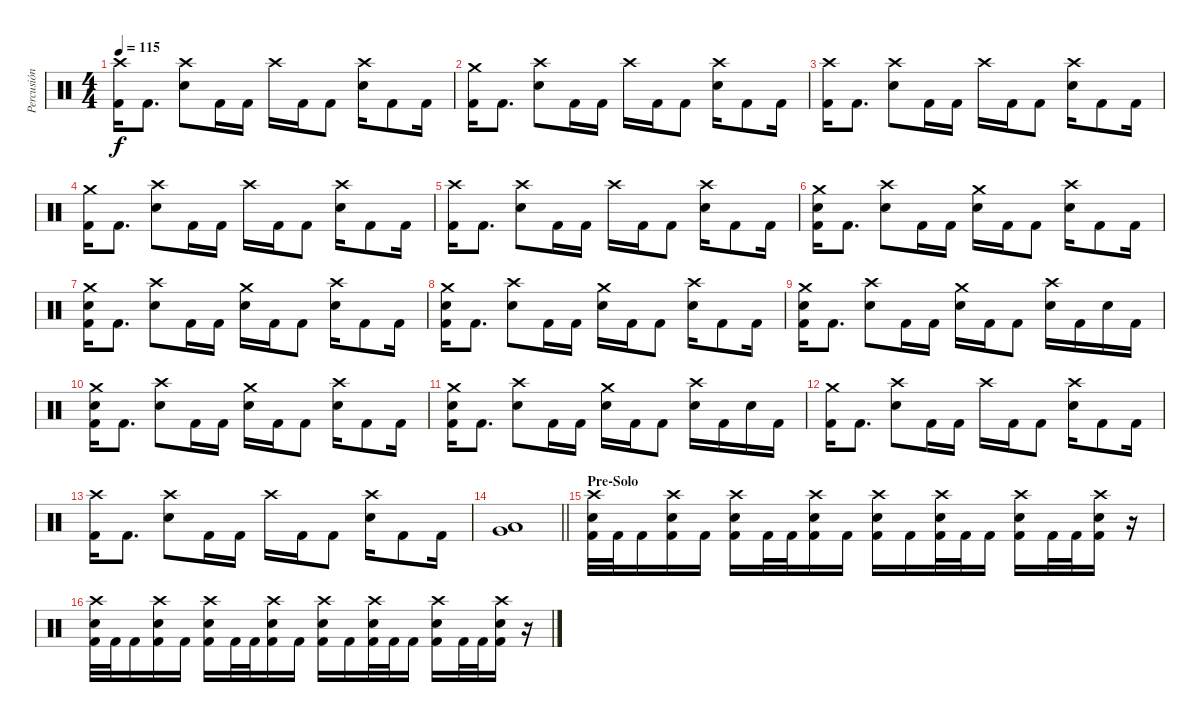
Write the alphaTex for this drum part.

\track ("Percusión" "Percusión") {instrument percussion}
\staff {score}
\articulation defaults
\ts (4 4)
\tempo 115
\clef neutral
\ks c
("Crash high (hit)" "Kick (hit) 2").16{dy f} "Kick (hit) 2".8{d} ("Crash high (hit)" "Snare (hit) 2").8 "Kick (hit) 2".16 "Kick (hit) 2".16 "Crash high (hit)".16 "Kick (hit) 2".16 "Kick (hit) 2".8 ("Crash high (hit)" "Snare (hit) 2").16 "Kick (hit) 2".8 "Kick (hit) 2".16 |
("Crash medium (hit)" "Kick (hit) 2").16 "Kick (hit) 2".8{d} ("Crash high (hit)" "Snare (hit) 2").8 "Kick (hit) 2".16 "Kick (hit) 2".16 "Crash high (hit)".16 "Kick (hit) 2".16 "Kick (hit) 2".8 ("Crash high (hit)" "Snare (hit) 2").16 "Kick (hit) 2".8 "Kick (hit) 2".16 |
("Crash high (hit)" "Kick (hit) 2").16 "Kick (hit) 2".8{d} ("Crash high (hit)" "Snare (hit) 2").8 "Kick (hit) 2".16 "Kick (hit) 2".16 "Crash high (hit)".16 "Kick (hit) 2".16 "Kick (hit) 2".8 ("Crash high (hit)" "Snare (hit) 2").16 "Kick (hit) 2".8 "Kick (hit) 2".16 |
("Crash medium (hit)" "Kick (hit) 2").16 "Kick (hit) 2".8{d} ("Crash high (hit)" "Snare (hit) 2").8 "Kick (hit) 2".16 "Kick (hit) 2".16 "Crash high (hit)".16 "Kick (hit) 2".16 "Kick (hit) 2".8 ("Crash high (hit)" "Snare (hit) 2").16 "Kick (hit) 2".8 "Kick (hit) 2".16 |
("Crash high (hit)" "Kick (hit) 2").16 "Kick (hit) 2".8{d} ("Crash high (hit)" "Snare (hit) 2").8 "Kick (hit) 2".16 "Kick (hit) 2".16 "Crash high (hit)".16 "Kick (hit) 2".16 "Kick (hit) 2".8 ("Crash high (hit)" "Snare (hit) 2").16 "Kick (hit) 2".8 "Kick (hit) 2".16 |
("Crash medium (hit)" "Snare (hit) 2" "Kick (hit) 2").16 "Kick (hit) 2".8{d} ("Crash high (hit)" "Snare (hit) 2").8 "Kick (hit) 2".16 "Kick (hit) 2".16 ("Crash medium (hit)" "Snare (hit) 2").16 "Kick (hit) 2".16 "Kick (hit) 2".8 ("Crash high (hit)" "Snare (hit) 2").16 "Kick (hit) 2".8 "Kick (hit) 2".16 |
("Crash medium (hit)" "Snare (hit) 2" "Kick (hit) 2").16 "Kick (hit) 2".8{d} ("Crash high (hit)" "Snare (hit) 2").8 "Kick (hit) 2".16 "Kick (hit) 2".16 ("Crash medium (hit)" "Snare (hit) 2").16 "Kick (hit) 2".16 "Kick (hit) 2".8 ("Crash high (hit)" "Snare (hit) 2").16 "Kick (hit) 2".8 "Kick (hit) 2".16 |
("Crash medium (hit)" "Snare (hit) 2" "Kick (hit) 2").16 "Kick (hit) 2".8{d} ("Crash high (hit)" "Snare (hit) 2").8 "Kick (hit) 2".16 "Kick (hit) 2".16 ("Crash medium (hit)" "Snare (hit) 2").16 "Kick (hit) 2".16 "Kick (hit) 2".8 ("Crash high (hit)" "Snare (hit) 2").16 "Kick (hit) 2".8 "Kick (hit) 2".16 |
("Crash medium (hit)" "Snare (hit) 2" "Kick (hit) 2").16 "Kick (hit) 2".8{d} ("Crash high (hit)" "Snare (hit) 2").8 "Kick (hit) 2".16 "Kick (hit) 2".16 ("Crash medium (hit)" "Snare (hit) 2").16 "Kick (hit) 2".16 "Kick (hit) 2".8 ("Crash high (hit)" "Snare (hit) 2").16 "Kick (hit) 2".16 "Snare (hit) 2".16 "Kick (hit) 2".16 |
("Crash medium (hit)" "Snare (hit) 2" "Kick (hit) 2").16 "Kick (hit) 2".8{d} ("Crash high (hit)" "Snare (hit) 2").8 "Kick (hit) 2".16 "Kick (hit) 2".16 ("Crash medium (hit)" "Snare (hit) 2").16 "Kick (hit) 2".16 "Kick (hit) 2".8 ("Crash high (hit)" "Snare (hit) 2").16 "Kick (hit) 2".8 "Kick (hit) 2".16 |
("Crash medium (hit)" "Snare (hit) 2" "Kick (hit) 2").16 "Kick (hit) 2".8{d} ("Crash high (hit)" "Snare (hit) 2").8 "Kick (hit) 2".16 "Kick (hit) 2".16 ("Crash medium (hit)" "Snare (hit) 2").16 "Kick (hit) 2".16 "Kick (hit) 2".8 ("Crash high (hit)" "Snare (hit) 2").16 "Kick (hit) 2".16 "Snare (hit) 2".16 "Kick (hit) 2".16 |
("Crash medium (hit)" "Kick (hit) 2").16 "Kick (hit) 2".8{d} ("Crash high (hit)" "Snare (hit) 2").8 "Kick (hit) 2".16 "Kick (hit) 2".16 "Crash high (hit)".16 "Kick (hit) 2".16 "Kick (hit) 2".8 ("Crash high (hit)" "Snare (hit) 2").16 "Kick (hit) 2".8 "Kick (hit) 2".16 |
("Crash high (hit)" "Kick (hit) 2").16 "Kick (hit) 2".8{d} ("Crash high (hit)" "Snare (hit) 2").8 "Kick (hit) 2".16 "Kick (hit) 2".16 "Crash high (hit)".16 "Kick (hit) 2".16 "Kick (hit) 2".8 ("Crash high (hit)" "Snare (hit) 2").16 "Kick (hit) 2".8 "Kick (hit) 2".16 |
\barLineRight lightlight
("Low Tom (hit)" "Very Low Tom (hit)").1 |
\section ("" "Pre-Solo")
("Crash high (hit)" "Snare (hit) 2" "Kick (hit) 2").32 "Kick (hit) 2".32 "Kick (hit) 2".16 ("Crash high (hit)" "Snare (hit) 2" "Kick (hit) 2").16 "Kick (hit) 2".16 ("Crash high (hit)" "Snare (hit) 2" "Kick (hit) 2").16 "Kick (hit) 2".32 "Kick (hit) 2".32 ("Crash high (hit)" "Snare (hit) 2" "Kick (hit) 2").16 "Kick (hit) 2".16 ("Crash high (hit)" "Snare (hit) 2" "Kick (hit) 2").16 "Kick (hit) 2".16 ("Crash high (hit)" "Snare (hit) 2" "Kick (hit) 2").32 "Kick (hit) 2".32 "Kick (hit) 2".16 ("Crash high (hit)" "Snare (hit) 2" "Kick (hit) 2").16 "Kick (hit) 2".32 "Kick (hit) 2".32 ("Crash high (hit)" "Snare (hit) 2" "Kick (hit) 2").16 r.16 |
("Crash high (hit)" "Snare (hit) 2" "Kick (hit) 2").32 "Kick (hit) 2".32 "Kick (hit) 2".16 ("Crash high (hit)" "Snare (hit) 2" "Kick (hit) 2").16 "Kick (hit) 2".16 ("Crash high (hit)" "Snare (hit) 2" "Kick (hit) 2").16 "Kick (hit) 2".32 "Kick (hit) 2".32 ("Crash high (hit)" "Snare (hit) 2" "Kick (hit) 2").16 "Kick (hit) 2".16 ("Crash high (hit)" "Snare (hit) 2" "Kick (hit) 2").16 "Kick (hit) 2".16 ("Crash high (hit)" "Snare (hit) 2" "Kick (hit) 2").32 "Kick (hit) 2".32 "Kick (hit) 2".16 ("Crash high (hit)" "Snare (hit) 2" "Kick (hit) 2").16 "Kick (hit) 2".32 "Kick (hit) 2".32 ("Crash high (hit)" "Snare (hit) 2" "Kick (hit) 2").16 r.16
